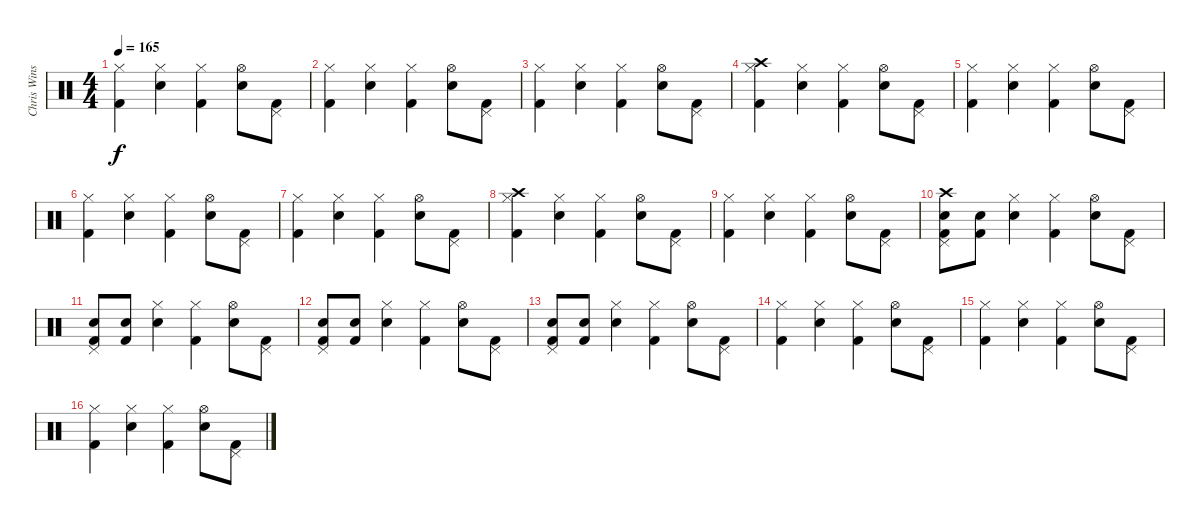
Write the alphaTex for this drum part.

\track ("Chris Winship (Bass)" "Chris Wins") {instrument percussion}
\staff {score}
\articulation defaults
\ts (4 4)
\tempo 165
\clef neutral
\ks c
("Hi-Hat (closed)" "Kick (hit) 2").4{dy f} ("Hi-Hat (closed)" "Snare (hit) 2").4 ("Hi-Hat (closed)" "Kick (hit) 2").4 ("Hi-Hat (open)" "Snare (hit) 2").8 ("Pedal Hi-Hat (hit)" "Kick (hit) 2").8 |
("Hi-Hat (closed)" "Kick (hit) 2").4 ("Hi-Hat (closed)" "Snare (hit) 2").4 ("Hi-Hat (closed)" "Kick (hit) 2").4 ("Hi-Hat (open)" "Snare (hit) 2").8 ("Pedal Hi-Hat (hit)" "Kick (hit) 2").8 |
("Hi-Hat (closed)" "Kick (hit) 2").4 ("Hi-Hat (closed)" "Snare (hit) 2").4 ("Hi-Hat (closed)" "Kick (hit) 2").4 ("Hi-Hat (open)" "Snare (hit) 2").8 ("Pedal Hi-Hat (hit)" "Kick (hit) 2").8 |
("Crash high (hit)" "Hi-Hat (closed)" "Kick (hit) 2").4 ("Hi-Hat (closed)" "Snare (hit) 2").4 ("Hi-Hat (closed)" "Kick (hit) 2").4 ("Hi-Hat (open)" "Snare (hit) 2").8 ("Pedal Hi-Hat (hit)" "Kick (hit) 2").8 |
("Hi-Hat (closed)" "Kick (hit) 2").4 ("Hi-Hat (closed)" "Snare (hit) 2").4 ("Hi-Hat (closed)" "Kick (hit) 2").4 ("Hi-Hat (open)" "Snare (hit) 2").8 ("Pedal Hi-Hat (hit)" "Kick (hit) 2").8 |
("Hi-Hat (closed)" "Kick (hit) 2").4 ("Hi-Hat (closed)" "Snare (hit) 2").4 ("Hi-Hat (closed)" "Kick (hit) 2").4 ("Hi-Hat (open)" "Snare (hit) 2").8 ("Pedal Hi-Hat (hit)" "Kick (hit) 2").8 |
("Hi-Hat (closed)" "Kick (hit) 2").4 ("Hi-Hat (closed)" "Snare (hit) 2").4 ("Hi-Hat (closed)" "Kick (hit) 2").4 ("Hi-Hat (open)" "Snare (hit) 2").8 ("Pedal Hi-Hat (hit)" "Kick (hit) 2").8 |
("Crash high (hit)" "Hi-Hat (closed)" "Kick (hit) 2").4 ("Hi-Hat (closed)" "Snare (hit) 2").4 ("Hi-Hat (closed)" "Kick (hit) 2").4 ("Hi-Hat (open)" "Snare (hit) 2").8 ("Pedal Hi-Hat (hit)" "Kick (hit) 2").8 |
("Hi-Hat (closed)" "Kick (hit) 2").4 ("Hi-Hat (closed)" "Snare (hit) 2").4 ("Hi-Hat (closed)" "Kick (hit) 2").4 ("Hi-Hat (open)" "Snare (hit) 2").8 ("Pedal Hi-Hat (hit)" "Kick (hit) 2").8 |
("Crash high (hit)" "Pedal Hi-Hat (hit)" "Kick (hit) 2" "Snare (hit) 2").8 ("Snare (hit) 2" "Kick (hit) 2").8 ("Hi-Hat (closed)" "Snare (hit) 2").4 ("Hi-Hat (closed)" "Kick (hit) 2").4 ("Hi-Hat (open)" "Snare (hit) 2").8 ("Pedal Hi-Hat (hit)" "Kick (hit) 2").8 |
("Pedal Hi-Hat (hit)" "Kick (hit) 2" "Snare (hit) 2").8 ("Snare (hit) 2" "Kick (hit) 2").8 ("Hi-Hat (closed)" "Snare (hit) 2").4 ("Hi-Hat (closed)" "Kick (hit) 2").4 ("Hi-Hat (open)" "Snare (hit) 2").8 ("Pedal Hi-Hat (hit)" "Kick (hit) 2").8 |
("Pedal Hi-Hat (hit)" "Kick (hit) 2" "Snare (hit) 2").8 ("Snare (hit) 2" "Kick (hit) 2").8 ("Hi-Hat (closed)" "Snare (hit) 2").4 ("Hi-Hat (closed)" "Kick (hit) 2").4 ("Hi-Hat (open)" "Snare (hit) 2").8 ("Pedal Hi-Hat (hit)" "Kick (hit) 2").8 |
("Pedal Hi-Hat (hit)" "Kick (hit) 2" "Snare (hit) 2").8 ("Snare (hit) 2" "Kick (hit) 2").8 ("Hi-Hat (closed)" "Snare (hit) 2").4 ("Hi-Hat (closed)" "Kick (hit) 2").4 ("Hi-Hat (open)" "Snare (hit) 2").8 ("Pedal Hi-Hat (hit)" "Kick (hit) 2").8 |
("Hi-Hat (closed)" "Kick (hit) 2").4 ("Hi-Hat (closed)" "Snare (hit) 2").4 ("Hi-Hat (closed)" "Kick (hit) 2").4 ("Hi-Hat (open)" "Snare (hit) 2").8 ("Pedal Hi-Hat (hit)" "Kick (hit) 2").8 |
("Hi-Hat (closed)" "Kick (hit) 2").4 ("Hi-Hat (closed)" "Snare (hit) 2").4 ("Hi-Hat (closed)" "Kick (hit) 2").4 ("Hi-Hat (open)" "Snare (hit) 2").8 ("Pedal Hi-Hat (hit)" "Kick (hit) 2").8 |
("Hi-Hat (closed)" "Kick (hit) 2").4 ("Hi-Hat (closed)" "Snare (hit) 2").4 ("Hi-Hat (closed)" "Kick (hit) 2").4 ("Hi-Hat (open)" "Snare (hit) 2").8 ("Pedal Hi-Hat (hit)" "Kick (hit) 2").8
